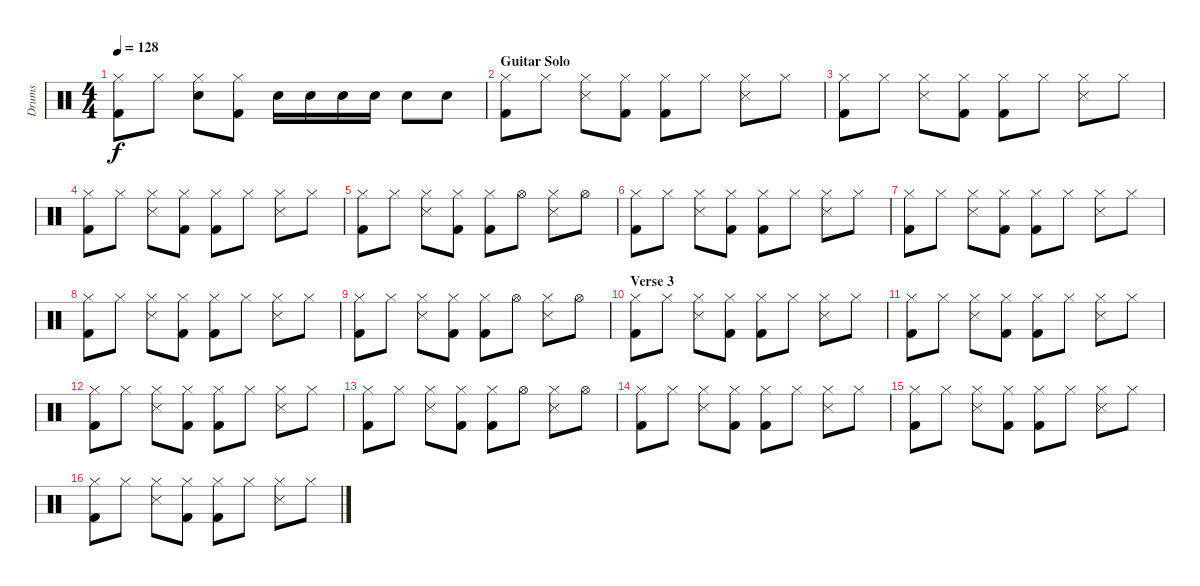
\track ("Drums" "Drums") {instrument percussion}
\staff {score}
\articulation defaults
\ts (4 4)
\tempo 128
\clef neutral
\ks c
("Kick (hit) 2" "Hi-Hat (closed)").8{dy f} "Hi-Hat (closed)".8 ("Electric Snare (hit)" "Hi-Hat (closed)").8 ("Kick (hit) 2" "Hi-Hat (closed)").8 "Electric Snare (hit)".16 "Electric Snare (hit)".16 "Electric Snare (hit)".16 "Electric Snare (hit)".16 "Electric Snare (hit)".8 "Electric Snare (hit)".8 |
\section ("" "Guitar Solo")
("Hi-Hat (closed)" "Kick (hit) 2").8 "Hi-Hat (closed)".8 ("Hi-Hat (closed)" "Snare (side stick) 3").8 ("Kick (hit) 2" "Hi-Hat (closed)").8 ("Hi-Hat (closed)" "Kick (hit) 2").8 "Hi-Hat (closed)".8 ("Hi-Hat (closed)" "Snare (side stick) 3").8 "Hi-Hat (closed)".8 |
("Hi-Hat (closed)" "Kick (hit) 2").8 "Hi-Hat (closed)".8 ("Hi-Hat (closed)" "Snare (side stick) 3").8 ("Kick (hit) 2" "Hi-Hat (closed)").8 ("Hi-Hat (closed)" "Kick (hit) 2").8 "Hi-Hat (closed)".8 ("Hi-Hat (closed)" "Snare (side stick) 3").8 "Hi-Hat (closed)".8 |
("Hi-Hat (closed)" "Kick (hit) 2").8 "Hi-Hat (closed)".8 ("Hi-Hat (closed)" "Snare (side stick) 3").8 ("Kick (hit) 2" "Hi-Hat (closed)").8 ("Hi-Hat (closed)" "Kick (hit) 2").8 "Hi-Hat (closed)".8 ("Hi-Hat (closed)" "Snare (side stick) 3").8 "Hi-Hat (closed)".8 |
("Hi-Hat (closed)" "Kick (hit) 2").8 "Hi-Hat (closed)".8 ("Hi-Hat (closed)" "Snare (side stick) 3").8 ("Kick (hit) 2" "Hi-Hat (closed)").8 ("Hi-Hat (closed)" "Kick (hit) 2").8 "Hi-Hat (open)".8 ("Hi-Hat (closed)" "Snare (side stick) 3").8 "Hi-Hat (open)".8 |
("Hi-Hat (closed)" "Kick (hit) 2").8 "Hi-Hat (closed)".8 ("Hi-Hat (closed)" "Snare (side stick) 3").8 ("Kick (hit) 2" "Hi-Hat (closed)").8 ("Hi-Hat (closed)" "Kick (hit) 2").8 "Hi-Hat (closed)".8 ("Hi-Hat (closed)" "Snare (side stick) 3").8 "Hi-Hat (closed)".8 |
("Hi-Hat (closed)" "Kick (hit) 2").8 "Hi-Hat (closed)".8 ("Hi-Hat (closed)" "Snare (side stick) 3").8 ("Kick (hit) 2" "Hi-Hat (closed)").8 ("Hi-Hat (closed)" "Kick (hit) 2").8 "Hi-Hat (closed)".8 ("Hi-Hat (closed)" "Snare (side stick) 3").8 "Hi-Hat (closed)".8 |
("Hi-Hat (closed)" "Kick (hit) 2").8 "Hi-Hat (closed)".8 ("Hi-Hat (closed)" "Snare (side stick) 3").8 ("Kick (hit) 2" "Hi-Hat (closed)").8 ("Hi-Hat (closed)" "Kick (hit) 2").8 "Hi-Hat (closed)".8 ("Hi-Hat (closed)" "Snare (side stick) 3").8 "Hi-Hat (closed)".8 |
("Hi-Hat (closed)" "Kick (hit) 2").8 "Hi-Hat (closed)".8 ("Hi-Hat (closed)" "Snare (side stick) 3").8 ("Kick (hit) 2" "Hi-Hat (closed)").8 ("Hi-Hat (closed)" "Kick (hit) 2").8 "Hi-Hat (open)".8 ("Hi-Hat (closed)" "Snare (side stick) 3").8 "Hi-Hat (open)".8 |
\section ("" "Verse 3")
("Hi-Hat (closed)" "Kick (hit) 2").8 "Hi-Hat (closed)".8 ("Hi-Hat (closed)" "Snare (side stick) 3").8 ("Kick (hit) 2" "Hi-Hat (closed)").8 ("Hi-Hat (closed)" "Kick (hit) 2").8 "Hi-Hat (closed)".8 ("Hi-Hat (closed)" "Snare (side stick) 3").8 "Hi-Hat (closed)".8 |
("Hi-Hat (closed)" "Kick (hit) 2").8 "Hi-Hat (closed)".8 ("Hi-Hat (closed)" "Snare (side stick) 3").8 ("Kick (hit) 2" "Hi-Hat (closed)").8 ("Hi-Hat (closed)" "Kick (hit) 2").8 "Hi-Hat (closed)".8 ("Hi-Hat (closed)" "Snare (side stick) 3").8 "Hi-Hat (closed)".8 |
("Hi-Hat (closed)" "Kick (hit) 2").8 "Hi-Hat (closed)".8 ("Hi-Hat (closed)" "Snare (side stick) 3").8 ("Kick (hit) 2" "Hi-Hat (closed)").8 ("Hi-Hat (closed)" "Kick (hit) 2").8 "Hi-Hat (closed)".8 ("Hi-Hat (closed)" "Snare (side stick) 3").8 "Hi-Hat (closed)".8 |
("Hi-Hat (closed)" "Kick (hit) 2").8 "Hi-Hat (closed)".8 ("Hi-Hat (closed)" "Snare (side stick) 3").8 ("Kick (hit) 2" "Hi-Hat (closed)").8 ("Hi-Hat (closed)" "Kick (hit) 2").8 "Hi-Hat (open)".8 ("Hi-Hat (closed)" "Snare (side stick) 3").8 "Hi-Hat (open)".8 |
("Hi-Hat (closed)" "Kick (hit) 2").8 "Hi-Hat (closed)".8 ("Hi-Hat (closed)" "Snare (side stick) 3").8 ("Kick (hit) 2" "Hi-Hat (closed)").8 ("Hi-Hat (closed)" "Kick (hit) 2").8 "Hi-Hat (closed)".8 ("Hi-Hat (closed)" "Snare (side stick) 3").8 "Hi-Hat (closed)".8 |
("Hi-Hat (closed)" "Kick (hit) 2").8 "Hi-Hat (closed)".8 ("Hi-Hat (closed)" "Snare (side stick) 3").8 ("Kick (hit) 2" "Hi-Hat (closed)").8 ("Hi-Hat (closed)" "Kick (hit) 2").8 "Hi-Hat (closed)".8 ("Hi-Hat (closed)" "Snare (side stick) 3").8 "Hi-Hat (closed)".8 |
("Hi-Hat (closed)" "Kick (hit) 2").8 "Hi-Hat (closed)".8 ("Hi-Hat (closed)" "Snare (side stick) 3").8 ("Kick (hit) 2" "Hi-Hat (closed)").8 ("Hi-Hat (closed)" "Kick (hit) 2").8 "Hi-Hat (closed)".8 ("Hi-Hat (closed)" "Snare (side stick) 3").8 "Hi-Hat (closed)".8
